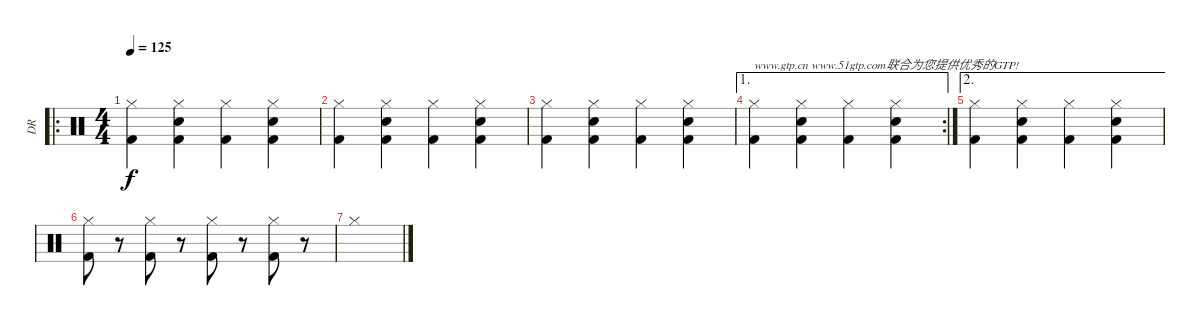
\track ("DR" "DR") {instrument percussion}
\staff {score}
\articulation defaults
\ro
\ts (4 4)
\tempo 125
\clef neutral
\ks c
("Hi-Hat (closed)" "Kick (hit) 2").4{dy f} ("Kick (hit) 2" "Hand Clap (hit)" "Hi-Hat (closed)").4 ("Kick (hit) 2" "Hi-Hat (closed)").4 ("Kick (hit) 2" "Hi-Hat (closed)" "Hand Clap (hit)").4 |
("Hi-Hat (closed)" "Kick (hit) 2").4 ("Kick (hit) 2" "Hand Clap (hit)" "Hi-Hat (closed)").4 ("Kick (hit) 2" "Hi-Hat (closed)").4 ("Kick (hit) 2" "Hi-Hat (closed)" "Hand Clap (hit)").4 |
("Hi-Hat (closed)" "Kick (hit) 2").4 ("Kick (hit) 2" "Hand Clap (hit)" "Hi-Hat (closed)").4 ("Kick (hit) 2" "Hi-Hat (closed)").4 ("Kick (hit) 2" "Hi-Hat (closed)" "Hand Clap (hit)").4 |
\ae 1
\rc 2
("Hi-Hat (closed)" "Kick (hit) 2").4{txt "www.gtp.cn www.51gtp.com联合为您提供优秀的GTP!"} ("Kick (hit) 2" "Hand Clap (hit)" "Hi-Hat (closed)").4 ("Kick (hit) 2" "Hi-Hat (closed)").4 ("Kick (hit) 2" "Hi-Hat (closed)" "Hand Clap (hit)").4 |
\ae 2
("Hi-Hat (closed)" "Kick (hit) 2").4 ("Kick (hit) 2" "Hand Clap (hit)" "Hi-Hat (closed)").4 ("Kick (hit) 2" "Hi-Hat (closed)").4 ("Kick (hit) 2" "Hi-Hat (closed)" "Hand Clap (hit)").4 |
("Hi-Hat (closed)" "Kick (hit) 2").8 r.8 ("Kick (hit) 2" "Hi-Hat (closed)").8 r.8 ("Kick (hit) 2" "Hi-Hat (closed)").8 r.8 ("Hi-Hat (closed)" "Kick (hit) 2").8 r.8 |
"Hi-Hat (closed)".1
